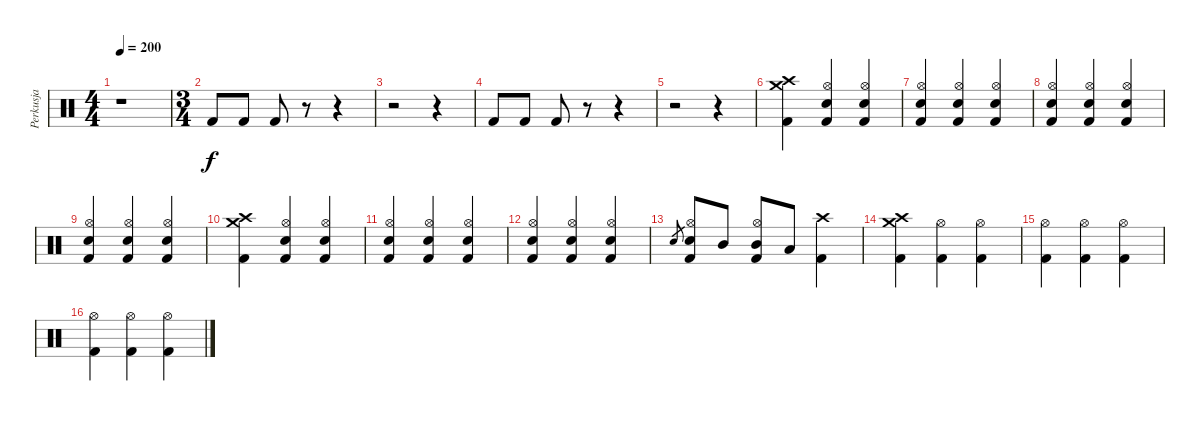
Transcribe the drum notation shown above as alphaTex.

\track ("Perkusja" "Perkusja") {instrument percussion}
\staff {score}
\articulation defaults
\ts (4 4)
\tempo 200
\clef neutral
\ks c
r.1{dy f} |
\ts (3 4)
"Kick (hit) 2".8 "Kick (hit) 2".8 "Kick (hit) 2".8 r.8 r.4 |
r.2 r.4 |
"Kick (hit) 2".8 "Kick (hit) 2".8 "Kick (hit) 2".8 r.8 r.4 |
r.2 r.4 |
("Crash high (hit)" "Crash medium (hit)" "Kick (hit) 2").4 ("Hi-Hat (open)" "Electric Snare (hit)" "Kick (hit) 2").4 ("Hi-Hat (open)" "Electric Snare (hit)" "Kick (hit) 2").4 |
("Hi-Hat (open)" "Electric Snare (hit)" "Kick (hit) 2").4 ("Hi-Hat (open)" "Electric Snare (hit)" "Kick (hit) 2").4 ("Hi-Hat (open)" "Electric Snare (hit)" "Kick (hit) 2").4 |
("Hi-Hat (open)" "Electric Snare (hit)" "Kick (hit) 2").4 ("Hi-Hat (open)" "Electric Snare (hit)" "Kick (hit) 2").4 ("Hi-Hat (open)" "Electric Snare (hit)" "Kick (hit) 2").4 |
("Hi-Hat (open)" "Electric Snare (hit)" "Kick (hit) 2").4 ("Hi-Hat (open)" "Electric Snare (hit)" "Kick (hit) 2").4 ("Hi-Hat (open)" "Electric Snare (hit)" "Kick (hit) 2").4 |
("Crash high (hit)" "Crash medium (hit)" "Kick (hit) 2").4 ("Hi-Hat (open)" "Electric Snare (hit)" "Kick (hit) 2").4 ("Hi-Hat (open)" "Electric Snare (hit)" "Kick (hit) 2").4 |
("Hi-Hat (open)" "Electric Snare (hit)" "Kick (hit) 2").4 ("Hi-Hat (open)" "Electric Snare (hit)" "Kick (hit) 2").4 ("Hi-Hat (open)" "Electric Snare (hit)" "Kick (hit) 2").4 |
("Hi-Hat (open)" "Electric Snare (hit)" "Kick (hit) 2").4 ("Hi-Hat (open)" "Electric Snare (hit)" "Kick (hit) 2").4 ("Hi-Hat (open)" "Electric Snare (hit)" "Kick (hit) 2").4 |
"Electric Snare (hit)".8{gr} ("Hi-Hat (open)" "Electric Snare (hit)" "Kick (hit) 2").8 "Mid Tom (hit)".8 ("Hi-Hat (open)" "Mid Tom (hit)" "Kick (hit) 2").8 "Low Tom (hit)".8 ("Crash high (hit)" "Kick (hit) 2").4 |
("Crash high (hit)" "Crash medium (hit)" "Kick (hit) 2").4 ("Hi-Hat (open)" "Kick (hit) 2").4 ("Hi-Hat (open)" "Kick (hit) 2").4 |
("Hi-Hat (open)" "Kick (hit) 2").4 ("Hi-Hat (open)" "Kick (hit) 2").4 ("Hi-Hat (open)" "Kick (hit) 2").4 |
("Hi-Hat (open)" "Kick (hit) 2").4 ("Hi-Hat (open)" "Kick (hit) 2").4 ("Hi-Hat (open)" "Kick (hit) 2").4
